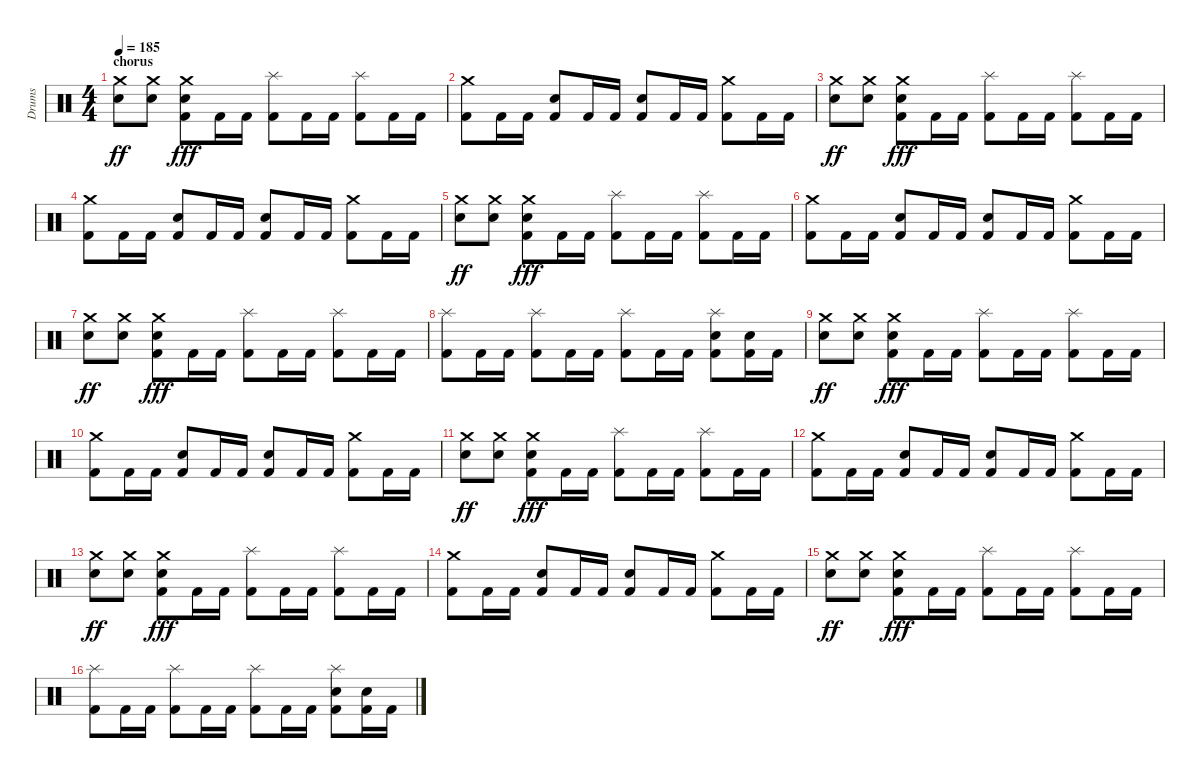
\track ("Drums" "Drums") {instrument percussion}
\staff {score}
\articulation defaults
\ts (4 4)
\section ("" "chorus")
\tempo 185
\clef neutral
\ks c
("Crash medium (hit)" "Electric Snare (hit)").8{dy ff} ("Crash medium (hit)" "Electric Snare (hit)").8 ("Crash medium (hit)" "Electric Snare (hit)" "Kick (hit) 2").8{dy fff} "Kick (hit) 2".16 "Kick (hit) 2".16 ("Splash (hit)" "Kick (hit) 2").8 "Kick (hit) 2".16 "Kick (hit) 2".16 ("Splash (hit)" "Kick (hit) 2").8 "Kick (hit) 2".16 "Kick (hit) 2".16 |
("Crash medium (hit)" "Kick (hit) 2").8 "Kick (hit) 2".16 "Kick (hit) 2".16 ("Electric Snare (hit)" "Kick (hit) 2").8 "Kick (hit) 2".16 "Kick (hit) 2".16 ("Electric Snare (hit)" "Kick (hit) 2").8 "Kick (hit) 2".16 "Kick (hit) 2".16 ("Crash medium (hit)" "Kick (hit) 2").8 "Kick (hit) 2".16 "Kick (hit) 2".16 |
("Crash medium (hit)" "Electric Snare (hit)").8{dy ff} ("Crash medium (hit)" "Electric Snare (hit)").8 ("Crash medium (hit)" "Electric Snare (hit)" "Kick (hit) 2").8{dy fff} "Kick (hit) 2".16 "Kick (hit) 2".16 ("Splash (hit)" "Kick (hit) 2").8 "Kick (hit) 2".16 "Kick (hit) 2".16 ("Splash (hit)" "Kick (hit) 2").8 "Kick (hit) 2".16 "Kick (hit) 2".16 |
("Crash medium (hit)" "Kick (hit) 2").8 "Kick (hit) 2".16 "Kick (hit) 2".16 ("Electric Snare (hit)" "Kick (hit) 2").8 "Kick (hit) 2".16 "Kick (hit) 2".16 ("Electric Snare (hit)" "Kick (hit) 2").8 "Kick (hit) 2".16 "Kick (hit) 2".16 ("Crash medium (hit)" "Kick (hit) 2").8 "Kick (hit) 2".16 "Kick (hit) 2".16 |
("Crash medium (hit)" "Electric Snare (hit)").8{dy ff} ("Crash medium (hit)" "Electric Snare (hit)").8 ("Crash medium (hit)" "Electric Snare (hit)" "Kick (hit) 2").8{dy fff} "Kick (hit) 2".16 "Kick (hit) 2".16 ("Splash (hit)" "Kick (hit) 2").8 "Kick (hit) 2".16 "Kick (hit) 2".16 ("Splash (hit)" "Kick (hit) 2").8 "Kick (hit) 2".16 "Kick (hit) 2".16 |
("Crash medium (hit)" "Kick (hit) 2").8 "Kick (hit) 2".16 "Kick (hit) 2".16 ("Electric Snare (hit)" "Kick (hit) 2").8 "Kick (hit) 2".16 "Kick (hit) 2".16 ("Electric Snare (hit)" "Kick (hit) 2").8 "Kick (hit) 2".16 "Kick (hit) 2".16 ("Crash medium (hit)" "Kick (hit) 2").8 "Kick (hit) 2".16 "Kick (hit) 2".16 |
("Crash medium (hit)" "Electric Snare (hit)").8{dy ff} ("Crash medium (hit)" "Electric Snare (hit)").8 ("Crash medium (hit)" "Electric Snare (hit)" "Kick (hit) 2").8{dy fff} "Kick (hit) 2".16 "Kick (hit) 2".16 ("Splash (hit)" "Kick (hit) 2").8 "Kick (hit) 2".16 "Kick (hit) 2".16 ("Splash (hit)" "Kick (hit) 2").8 "Kick (hit) 2".16 "Kick (hit) 2".16 |
("Splash (hit)" "Kick (hit) 2").8 "Kick (hit) 2".16 "Kick (hit) 2".16 ("Splash (hit)" "Kick (hit) 2").8 "Kick (hit) 2".16 "Kick (hit) 2".16 ("Splash (hit)" "Kick (hit) 2").8 "Kick (hit) 2".16 "Kick (hit) 2".16 ("Electric Snare (hit)" "Splash (hit)" "Kick (hit) 2").8 ("Electric Snare (hit)" "Kick (hit) 2").16 "Kick (hit) 2".16 |
("Crash medium (hit)" "Electric Snare (hit)").8{dy ff} ("Crash medium (hit)" "Electric Snare (hit)").8 ("Crash medium (hit)" "Electric Snare (hit)" "Kick (hit) 2").8{dy fff} "Kick (hit) 2".16 "Kick (hit) 2".16 ("Splash (hit)" "Kick (hit) 2").8 "Kick (hit) 2".16 "Kick (hit) 2".16 ("Splash (hit)" "Kick (hit) 2").8 "Kick (hit) 2".16 "Kick (hit) 2".16 |
("Crash medium (hit)" "Kick (hit) 2").8 "Kick (hit) 2".16 "Kick (hit) 2".16 ("Electric Snare (hit)" "Kick (hit) 2").8 "Kick (hit) 2".16 "Kick (hit) 2".16 ("Electric Snare (hit)" "Kick (hit) 2").8 "Kick (hit) 2".16 "Kick (hit) 2".16 ("Crash medium (hit)" "Kick (hit) 2").8 "Kick (hit) 2".16 "Kick (hit) 2".16 |
("Crash medium (hit)" "Electric Snare (hit)").8{dy ff} ("Crash medium (hit)" "Electric Snare (hit)").8 ("Crash medium (hit)" "Electric Snare (hit)" "Kick (hit) 2").8{dy fff} "Kick (hit) 2".16 "Kick (hit) 2".16 ("Splash (hit)" "Kick (hit) 2").8 "Kick (hit) 2".16 "Kick (hit) 2".16 ("Splash (hit)" "Kick (hit) 2").8 "Kick (hit) 2".16 "Kick (hit) 2".16 |
("Crash medium (hit)" "Kick (hit) 2").8 "Kick (hit) 2".16 "Kick (hit) 2".16 ("Electric Snare (hit)" "Kick (hit) 2").8 "Kick (hit) 2".16 "Kick (hit) 2".16 ("Electric Snare (hit)" "Kick (hit) 2").8 "Kick (hit) 2".16 "Kick (hit) 2".16 ("Crash medium (hit)" "Kick (hit) 2").8 "Kick (hit) 2".16 "Kick (hit) 2".16 |
("Crash medium (hit)" "Electric Snare (hit)").8{dy ff} ("Crash medium (hit)" "Electric Snare (hit)").8 ("Crash medium (hit)" "Electric Snare (hit)" "Kick (hit) 2").8{dy fff} "Kick (hit) 2".16 "Kick (hit) 2".16 ("Splash (hit)" "Kick (hit) 2").8 "Kick (hit) 2".16 "Kick (hit) 2".16 ("Splash (hit)" "Kick (hit) 2").8 "Kick (hit) 2".16 "Kick (hit) 2".16 |
("Crash medium (hit)" "Kick (hit) 2").8 "Kick (hit) 2".16 "Kick (hit) 2".16 ("Electric Snare (hit)" "Kick (hit) 2").8 "Kick (hit) 2".16 "Kick (hit) 2".16 ("Electric Snare (hit)" "Kick (hit) 2").8 "Kick (hit) 2".16 "Kick (hit) 2".16 ("Crash medium (hit)" "Kick (hit) 2").8 "Kick (hit) 2".16 "Kick (hit) 2".16 |
("Crash medium (hit)" "Electric Snare (hit)").8{dy ff} ("Crash medium (hit)" "Electric Snare (hit)").8 ("Crash medium (hit)" "Electric Snare (hit)" "Kick (hit) 2").8{dy fff} "Kick (hit) 2".16 "Kick (hit) 2".16 ("Splash (hit)" "Kick (hit) 2").8 "Kick (hit) 2".16 "Kick (hit) 2".16 ("Splash (hit)" "Kick (hit) 2").8 "Kick (hit) 2".16 "Kick (hit) 2".16 |
("Splash (hit)" "Kick (hit) 2").8 "Kick (hit) 2".16 "Kick (hit) 2".16 ("Splash (hit)" "Kick (hit) 2").8 "Kick (hit) 2".16 "Kick (hit) 2".16 ("Splash (hit)" "Kick (hit) 2").8 "Kick (hit) 2".16 "Kick (hit) 2".16 ("Electric Snare (hit)" "Splash (hit)" "Kick (hit) 2").8 ("Electric Snare (hit)" "Kick (hit) 2").16 "Kick (hit) 2".16
